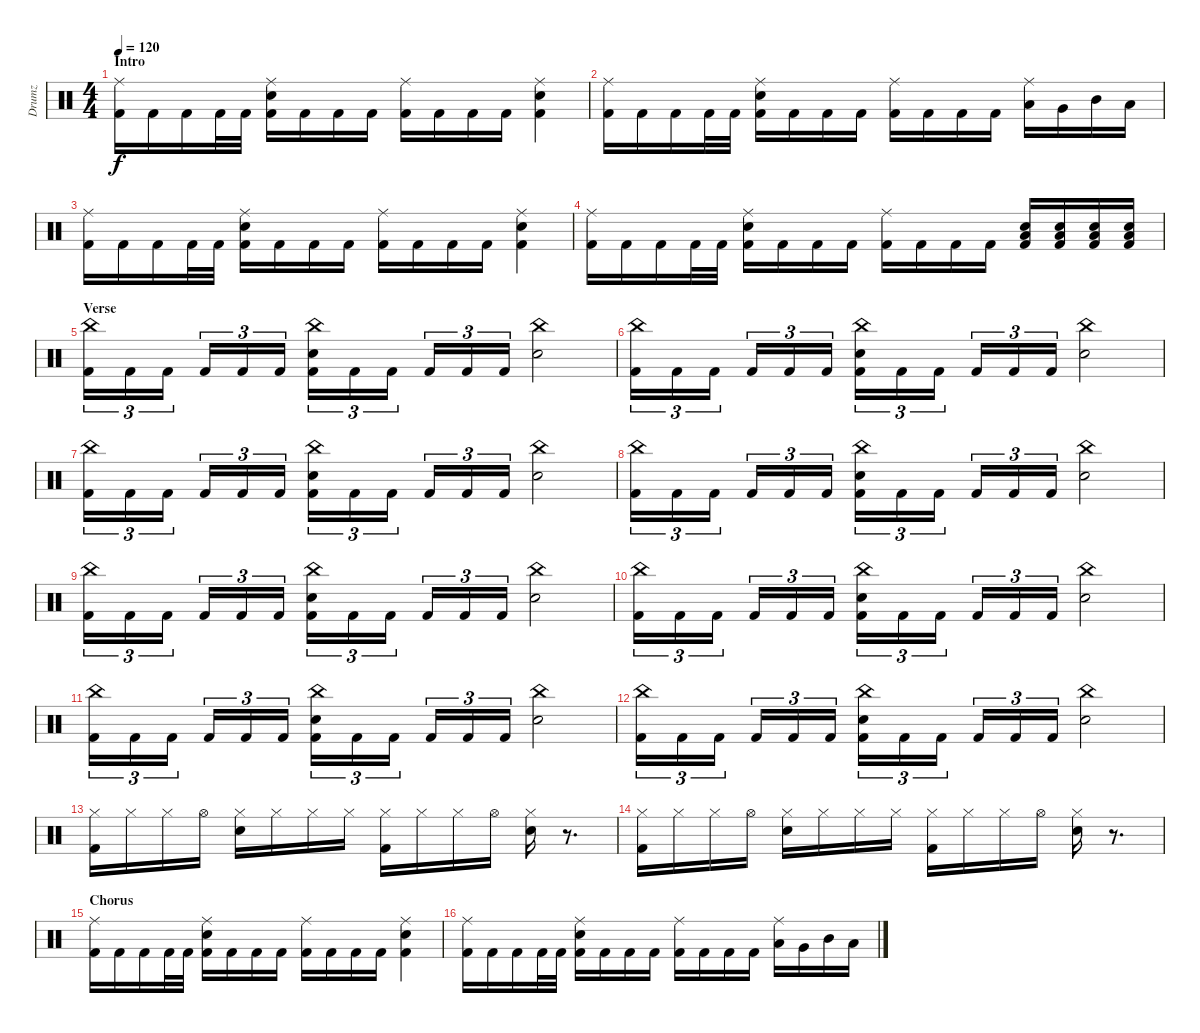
\track ("Drumz" "Drumz") {instrument percussion}
\staff {score}
\articulation defaults
\ts (4 4)
\section ("" "Intro")
\tempo 120
\clef neutral
\ks c
("Ride (middle)" "Kick (hit) 2").16{dy f} "Kick (hit) 2".16 "Kick (hit) 2".16 "Kick (hit) 2".32 "Kick (hit) 2".32 ("Ride (middle)" "Electric Snare (hit)" "Kick (hit) 2").16 "Kick (hit) 2".16 "Kick (hit) 2".16 "Kick (hit) 2".16 ("Ride (middle)" "Kick (hit) 2").16 "Kick (hit) 2".16 "Kick (hit) 2".16 "Kick (hit) 2".16 ("Ride (middle)" "Electric Snare (hit)" "Kick (hit) 2").4 |
("Ride (middle)" "Kick (hit) 2").16 "Kick (hit) 2".16 "Kick (hit) 2".16 "Kick (hit) 2".32 "Kick (hit) 2".32 ("Ride (middle)" "Electric Snare (hit)" "Kick (hit) 2").16 "Kick (hit) 2".16 "Kick (hit) 2".16 "Kick (hit) 2".16 ("Ride (middle)" "Kick (hit) 2").16 "Kick (hit) 2".16 "Kick (hit) 2".16 "Kick (hit) 2".16 ("Ride (middle)" "Low Tom (hit)").16 "Very Low Tom (hit)".16 "Mid Tom (hit)".16 "Low Floor Tom (hit)".16 |
("Ride (middle)" "Kick (hit) 2").16 "Kick (hit) 2".16 "Kick (hit) 2".16 "Kick (hit) 2".32 "Kick (hit) 2".32 ("Ride (middle)" "Electric Snare (hit)" "Kick (hit) 2").16 "Kick (hit) 2".16 "Kick (hit) 2".16 "Kick (hit) 2".16 ("Ride (middle)" "Kick (hit) 2").16 "Kick (hit) 2".16 "Kick (hit) 2".16 "Kick (hit) 2".16 ("Ride (middle)" "Electric Snare (hit)" "Kick (hit) 2").4 |
("Ride (middle)" "Kick (hit) 2").16 "Kick (hit) 2".16 "Kick (hit) 2".16 "Kick (hit) 2".32 "Kick (hit) 2".32 ("Ride (middle)" "Electric Snare (hit)" "Kick (hit) 2").16 "Kick (hit) 2".16 "Kick (hit) 2".16 "Kick (hit) 2".16 ("Ride (middle)" "Kick (hit) 2").16 "Kick (hit) 2".16 "Kick (hit) 2".16 "Kick (hit) 2".16 ("Electric Snare (hit)" "Low Floor Tom (hit)" "Kick (hit) 2").16 ("Electric Snare (hit)" "Low Floor Tom (hit)" "Kick (hit) 2").16 ("Electric Snare (hit)" "Low Floor Tom (hit)" "Kick (hit) 2").16 ("Electric Snare (hit)" "Low Floor Tom (hit)" "Kick (hit) 2").16 |
\section ("" "Verse")
("China (hit)" "Kick (hit) 2").16{tu (3 2)} "Kick (hit) 2".16{tu (3 2)} "Kick (hit) 2".16{tu (3 2)} "Kick (hit) 2".16{tu (3 2)} "Kick (hit) 2".16{tu (3 2)} "Kick (hit) 2".16{tu (3 2)} ("China (hit)" "Electric Snare (hit)" "Kick (hit) 2").16{tu (3 2)} "Kick (hit) 2".16{tu (3 2)} "Kick (hit) 2".16{tu (3 2)} "Kick (hit) 2".16{tu (3 2)} "Kick (hit) 2".16{tu (3 2)} "Kick (hit) 2".16{tu (3 2)} ("China (hit)" "Electric Snare (hit)").2 |
("China (hit)" "Kick (hit) 2").16{tu (3 2)} "Kick (hit) 2".16{tu (3 2)} "Kick (hit) 2".16{tu (3 2)} "Kick (hit) 2".16{tu (3 2)} "Kick (hit) 2".16{tu (3 2)} "Kick (hit) 2".16{tu (3 2)} ("China (hit)" "Electric Snare (hit)" "Kick (hit) 2").16{tu (3 2)} "Kick (hit) 2".16{tu (3 2)} "Kick (hit) 2".16{tu (3 2)} "Kick (hit) 2".16{tu (3 2)} "Kick (hit) 2".16{tu (3 2)} "Kick (hit) 2".16{tu (3 2)} ("China (hit)" "Electric Snare (hit)").2 |
("China (hit)" "Kick (hit) 2").16{tu (3 2)} "Kick (hit) 2".16{tu (3 2)} "Kick (hit) 2".16{tu (3 2)} "Kick (hit) 2".16{tu (3 2)} "Kick (hit) 2".16{tu (3 2)} "Kick (hit) 2".16{tu (3 2)} ("China (hit)" "Electric Snare (hit)" "Kick (hit) 2").16{tu (3 2)} "Kick (hit) 2".16{tu (3 2)} "Kick (hit) 2".16{tu (3 2)} "Kick (hit) 2".16{tu (3 2)} "Kick (hit) 2".16{tu (3 2)} "Kick (hit) 2".16{tu (3 2)} ("China (hit)" "Electric Snare (hit)").2 |
("China (hit)" "Kick (hit) 2").16{tu (3 2)} "Kick (hit) 2".16{tu (3 2)} "Kick (hit) 2".16{tu (3 2)} "Kick (hit) 2".16{tu (3 2)} "Kick (hit) 2".16{tu (3 2)} "Kick (hit) 2".16{tu (3 2)} ("China (hit)" "Electric Snare (hit)" "Kick (hit) 2").16{tu (3 2)} "Kick (hit) 2".16{tu (3 2)} "Kick (hit) 2".16{tu (3 2)} "Kick (hit) 2".16{tu (3 2)} "Kick (hit) 2".16{tu (3 2)} "Kick (hit) 2".16{tu (3 2)} ("China (hit)" "Electric Snare (hit)").2 |
("China (hit)" "Kick (hit) 2").16{tu (3 2)} "Kick (hit) 2".16{tu (3 2)} "Kick (hit) 2".16{tu (3 2)} "Kick (hit) 2".16{tu (3 2)} "Kick (hit) 2".16{tu (3 2)} "Kick (hit) 2".16{tu (3 2)} ("China (hit)" "Electric Snare (hit)" "Kick (hit) 2").16{tu (3 2)} "Kick (hit) 2".16{tu (3 2)} "Kick (hit) 2".16{tu (3 2)} "Kick (hit) 2".16{tu (3 2)} "Kick (hit) 2".16{tu (3 2)} "Kick (hit) 2".16{tu (3 2)} ("China (hit)" "Electric Snare (hit)").2 |
("China (hit)" "Kick (hit) 2").16{tu (3 2)} "Kick (hit) 2".16{tu (3 2)} "Kick (hit) 2".16{tu (3 2)} "Kick (hit) 2".16{tu (3 2)} "Kick (hit) 2".16{tu (3 2)} "Kick (hit) 2".16{tu (3 2)} ("China (hit)" "Electric Snare (hit)" "Kick (hit) 2").16{tu (3 2)} "Kick (hit) 2".16{tu (3 2)} "Kick (hit) 2".16{tu (3 2)} "Kick (hit) 2".16{tu (3 2)} "Kick (hit) 2".16{tu (3 2)} "Kick (hit) 2".16{tu (3 2)} ("China (hit)" "Electric Snare (hit)").2 |
("China (hit)" "Kick (hit) 2").16{tu (3 2)} "Kick (hit) 2".16{tu (3 2)} "Kick (hit) 2".16{tu (3 2)} "Kick (hit) 2".16{tu (3 2)} "Kick (hit) 2".16{tu (3 2)} "Kick (hit) 2".16{tu (3 2)} ("China (hit)" "Electric Snare (hit)" "Kick (hit) 2").16{tu (3 2)} "Kick (hit) 2".16{tu (3 2)} "Kick (hit) 2".16{tu (3 2)} "Kick (hit) 2".16{tu (3 2)} "Kick (hit) 2".16{tu (3 2)} "Kick (hit) 2".16{tu (3 2)} ("China (hit)" "Electric Snare (hit)").2 |
("China (hit)" "Kick (hit) 2").16{tu (3 2)} "Kick (hit) 2".16{tu (3 2)} "Kick (hit) 2".16{tu (3 2)} "Kick (hit) 2".16{tu (3 2)} "Kick (hit) 2".16{tu (3 2)} "Kick (hit) 2".16{tu (3 2)} ("China (hit)" "Electric Snare (hit)" "Kick (hit) 2").16{tu (3 2)} "Kick (hit) 2".16{tu (3 2)} "Kick (hit) 2".16{tu (3 2)} "Kick (hit) 2".16{tu (3 2)} "Kick (hit) 2".16{tu (3 2)} "Kick (hit) 2".16{tu (3 2)} ("China (hit)" "Electric Snare (hit)").2 |
("Hi-Hat (closed)" "Kick (hit) 2").16 "Hi-Hat (closed)".16 "Hi-Hat (closed)".16 "Hi-Hat (open)".16 ("Hi-Hat (closed)" "Electric Snare (hit)").16 "Hi-Hat (closed)".16 "Hi-Hat (closed)".16 "Hi-Hat (closed)".16 ("Hi-Hat (closed)" "Kick (hit) 2").16 "Hi-Hat (closed)".16 "Hi-Hat (closed)".16 "Hi-Hat (open)".16 ("Hi-Hat (closed)" "Electric Snare (hit)").16 r.8{d} |
("Hi-Hat (closed)" "Kick (hit) 2").16 "Hi-Hat (closed)".16 "Hi-Hat (closed)".16 "Hi-Hat (open)".16 ("Hi-Hat (closed)" "Electric Snare (hit)").16 "Hi-Hat (closed)".16 "Hi-Hat (closed)".16 "Hi-Hat (closed)".16 ("Hi-Hat (closed)" "Kick (hit) 2").16 "Hi-Hat (closed)".16 "Hi-Hat (closed)".16 "Hi-Hat (open)".16 ("Hi-Hat (closed)" "Electric Snare (hit)").16 r.8{d} |
\section ("" "Chorus")
("Ride (middle)" "Kick (hit) 2").16 "Kick (hit) 2".16 "Kick (hit) 2".16 "Kick (hit) 2".32 "Kick (hit) 2".32 ("Ride (middle)" "Electric Snare (hit)" "Kick (hit) 2").16 "Kick (hit) 2".16 "Kick (hit) 2".16 "Kick (hit) 2".16 ("Ride (middle)" "Kick (hit) 2").16 "Kick (hit) 2".16 "Kick (hit) 2".16 "Kick (hit) 2".16 ("Ride (middle)" "Electric Snare (hit)" "Kick (hit) 2").4 |
("Ride (middle)" "Kick (hit) 2").16 "Kick (hit) 2".16 "Kick (hit) 2".16 "Kick (hit) 2".32 "Kick (hit) 2".32 ("Ride (middle)" "Electric Snare (hit)" "Kick (hit) 2").16 "Kick (hit) 2".16 "Kick (hit) 2".16 "Kick (hit) 2".16 ("Ride (middle)" "Kick (hit) 2").16 "Kick (hit) 2".16 "Kick (hit) 2".16 "Kick (hit) 2".16 ("Ride (middle)" "Low Tom (hit)").16 "Very Low Tom (hit)".16 "Mid Tom (hit)".16 "Low Floor Tom (hit)".16
